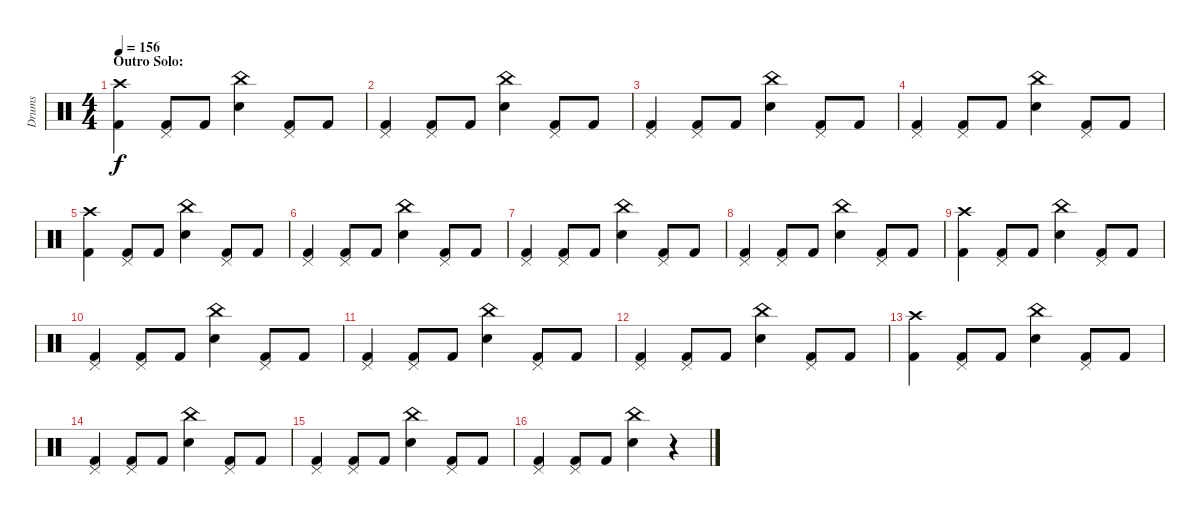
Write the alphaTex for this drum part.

\track ("Drums" "Drums") {instrument percussion}
\staff {score}
\articulation defaults
\ts (4 4)
\section ("" "Outro Solo:")
\tempo 156
\clef neutral
\ks c
("Crash high (hit)" "Kick (hit) 2").4{dy f} ("Pedal Hi-Hat (hit)" "Kick (hit) 2").8 "Kick (hit) 2".8 ("China (hit)" "Electric Snare (hit)").4 ("Pedal Hi-Hat (hit)" "Kick (hit) 2").8 "Kick (hit) 2".8 |
("Pedal Hi-Hat (hit)" "Kick (hit) 2").4 ("Pedal Hi-Hat (hit)" "Kick (hit) 2").8 "Kick (hit) 2".8 ("China (hit)" "Electric Snare (hit)").4 ("Pedal Hi-Hat (hit)" "Kick (hit) 2").8 "Kick (hit) 2".8 |
("Pedal Hi-Hat (hit)" "Kick (hit) 2").4 ("Pedal Hi-Hat (hit)" "Kick (hit) 2").8 "Kick (hit) 2".8 ("China (hit)" "Electric Snare (hit)").4 ("Pedal Hi-Hat (hit)" "Kick (hit) 2").8 "Kick (hit) 2".8 |
("Pedal Hi-Hat (hit)" "Kick (hit) 2").4 ("Pedal Hi-Hat (hit)" "Kick (hit) 2").8 "Kick (hit) 2".8 ("China (hit)" "Electric Snare (hit)").4 ("Pedal Hi-Hat (hit)" "Kick (hit) 2").8 "Kick (hit) 2".8 |
("Crash high (hit)" "Kick (hit) 2").4 ("Pedal Hi-Hat (hit)" "Kick (hit) 2").8 "Kick (hit) 2".8 ("China (hit)" "Electric Snare (hit)").4 ("Pedal Hi-Hat (hit)" "Kick (hit) 2").8 "Kick (hit) 2".8 |
("Pedal Hi-Hat (hit)" "Kick (hit) 2").4 ("Pedal Hi-Hat (hit)" "Kick (hit) 2").8 "Kick (hit) 2".8 ("China (hit)" "Electric Snare (hit)").4 ("Pedal Hi-Hat (hit)" "Kick (hit) 2").8 "Kick (hit) 2".8 |
("Pedal Hi-Hat (hit)" "Kick (hit) 2").4 ("Pedal Hi-Hat (hit)" "Kick (hit) 2").8 "Kick (hit) 2".8 ("China (hit)" "Electric Snare (hit)").4 ("Pedal Hi-Hat (hit)" "Kick (hit) 2").8 "Kick (hit) 2".8 |
("Pedal Hi-Hat (hit)" "Kick (hit) 2").4 ("Pedal Hi-Hat (hit)" "Kick (hit) 2").8 "Kick (hit) 2".8 ("China (hit)" "Electric Snare (hit)").4 ("Pedal Hi-Hat (hit)" "Kick (hit) 2").8 "Kick (hit) 2".8 |
("Crash high (hit)" "Kick (hit) 2").4 ("Pedal Hi-Hat (hit)" "Kick (hit) 2").8 "Kick (hit) 2".8 ("China (hit)" "Electric Snare (hit)").4 ("Pedal Hi-Hat (hit)" "Kick (hit) 2").8 "Kick (hit) 2".8 |
("Pedal Hi-Hat (hit)" "Kick (hit) 2").4 ("Pedal Hi-Hat (hit)" "Kick (hit) 2").8 "Kick (hit) 2".8 ("China (hit)" "Electric Snare (hit)").4 ("Pedal Hi-Hat (hit)" "Kick (hit) 2").8 "Kick (hit) 2".8 |
("Pedal Hi-Hat (hit)" "Kick (hit) 2").4 ("Pedal Hi-Hat (hit)" "Kick (hit) 2").8 "Kick (hit) 2".8 ("China (hit)" "Electric Snare (hit)").4 ("Pedal Hi-Hat (hit)" "Kick (hit) 2").8 "Kick (hit) 2".8 |
("Pedal Hi-Hat (hit)" "Kick (hit) 2").4 ("Pedal Hi-Hat (hit)" "Kick (hit) 2").8 "Kick (hit) 2".8 ("China (hit)" "Electric Snare (hit)").4 ("Pedal Hi-Hat (hit)" "Kick (hit) 2").8 "Kick (hit) 2".8 |
("Crash high (hit)" "Kick (hit) 2").4 ("Pedal Hi-Hat (hit)" "Kick (hit) 2").8 "Kick (hit) 2".8 ("China (hit)" "Electric Snare (hit)").4 ("Pedal Hi-Hat (hit)" "Kick (hit) 2").8 "Kick (hit) 2".8 |
("Pedal Hi-Hat (hit)" "Kick (hit) 2").4 ("Pedal Hi-Hat (hit)" "Kick (hit) 2").8 "Kick (hit) 2".8 ("China (hit)" "Electric Snare (hit)").4 ("Pedal Hi-Hat (hit)" "Kick (hit) 2").8 "Kick (hit) 2".8 |
("Pedal Hi-Hat (hit)" "Kick (hit) 2").4 ("Pedal Hi-Hat (hit)" "Kick (hit) 2").8 "Kick (hit) 2".8 ("China (hit)" "Electric Snare (hit)").4 ("Pedal Hi-Hat (hit)" "Kick (hit) 2").8 "Kick (hit) 2".8 |
("Pedal Hi-Hat (hit)" "Kick (hit) 2").4 ("Pedal Hi-Hat (hit)" "Kick (hit) 2").8 "Kick (hit) 2".8 ("China (hit)" "Electric Snare (hit)").4 r.4
